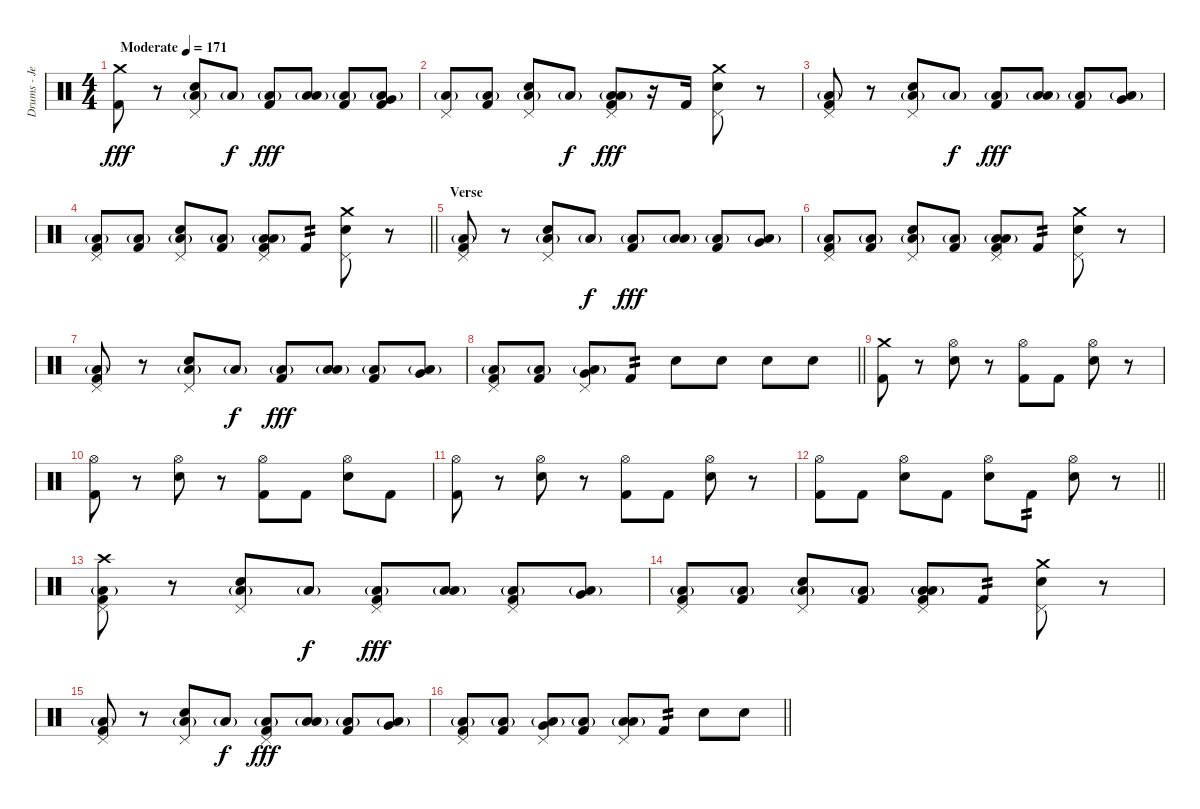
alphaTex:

\track ("Drums - Jerinx" "Drums - Je") {instrument percussion}
\staff {score}
\articulation defaults
\ts (4 4)
\tempo (171 "Moderate")
\clef neutral
\ks c
("Kick (hit) 2" "Crash medium (hit)").8{dy fff} r.8 ("Pedal Hi-Hat (hit)" "Snare (hit) 2" "Low Floor Tom (hit)"{g}).8 "Low Floor Tom (hit)"{g}.8{dy f} ("Kick (hit) 2" "Low Floor Tom (hit)"{g}).8{dy fff} ("Low Tom (hit)" "Low Floor Tom (hit)"{g}).8 ("Kick (hit) 2" "Low Floor Tom (hit)"{g}).8 ("Very Low Tom (hit)" "Kick (hit) 2" "Low Floor Tom (hit)"{g}).8 |
("Pedal Hi-Hat (hit)" "Low Floor Tom (hit)"{g}).8 ("Kick (hit) 2" "Low Floor Tom (hit)"{g}).8 ("Pedal Hi-Hat (hit)" "Snare (hit) 2" "Low Floor Tom (hit)"{g}).8 "Low Floor Tom (hit)"{g}.8{dy f} ("Pedal Hi-Hat (hit)" "Low Tom (hit)" "Kick (hit) 2" "Low Floor Tom (hit)"{g}).8{dy fff} r.16 "Kick (hit) 2".16 ("Pedal Hi-Hat (hit)" "Snare (hit) 2" "Crash medium (hit)").8 r.8 |
("Pedal Hi-Hat (hit)" "Kick (hit) 2" "Low Floor Tom (hit)"{g}).8 r.8 ("Pedal Hi-Hat (hit)" "Snare (hit) 2" "Low Floor Tom (hit)"{g}).8 "Low Floor Tom (hit)"{g}.8{dy f} ("Kick (hit) 2" "Low Floor Tom (hit)"{g}).8{dy fff} ("Low Tom (hit)" "Low Floor Tom (hit)"{g}).8 ("Kick (hit) 2" "Low Floor Tom (hit)"{g}).8 ("Very Low Tom (hit)" "Low Floor Tom (hit)"{g}).8 |
\barLineRight lightlight
("Pedal Hi-Hat (hit)" "Kick (hit) 2" "Low Floor Tom (hit)"{g}).8 ("Kick (hit) 2" "Low Floor Tom (hit)"{g}).8 ("Pedal Hi-Hat (hit)" "Snare (hit) 2" "Low Floor Tom (hit)"{g}).8 ("Kick (hit) 2" "Low Floor Tom (hit)"{g}).8 ("Pedal Hi-Hat (hit)" "Low Tom (hit)" "Kick (hit) 2" "Low Floor Tom (hit)"{g}).8 "Kick (hit) 2".8{tp 2} ("Pedal Hi-Hat (hit)" "Snare (hit) 2" "Crash medium (hit)").8 r.8 |
\section ("" "Verse")
("Pedal Hi-Hat (hit)" "Kick (hit) 2" "Low Floor Tom (hit)"{g}).8 r.8 ("Pedal Hi-Hat (hit)" "Snare (hit) 2" "Low Floor Tom (hit)"{g}).8 "Low Floor Tom (hit)"{g}.8{dy f} ("Kick (hit) 2" "Low Floor Tom (hit)"{g}).8{dy fff} ("Low Tom (hit)" "Low Floor Tom (hit)"{g}).8 ("Kick (hit) 2" "Low Floor Tom (hit)"{g}).8 ("Very Low Tom (hit)" "Low Floor Tom (hit)"{g}).8 |
("Pedal Hi-Hat (hit)" "Kick (hit) 2" "Low Floor Tom (hit)"{g}).8 ("Kick (hit) 2" "Low Floor Tom (hit)"{g}).8 ("Pedal Hi-Hat (hit)" "Snare (hit) 2" "Low Floor Tom (hit)"{g}).8 ("Kick (hit) 2" "Low Floor Tom (hit)"{g}).8 ("Pedal Hi-Hat (hit)" "Low Tom (hit)" "Kick (hit) 2" "Low Floor Tom (hit)"{g}).8 "Kick (hit) 2".8{tp 2} ("Pedal Hi-Hat (hit)" "Snare (hit) 2" "Crash medium (hit)").8 r.8 |
("Pedal Hi-Hat (hit)" "Kick (hit) 2" "Low Floor Tom (hit)"{g}).8 r.8 ("Pedal Hi-Hat (hit)" "Snare (hit) 2" "Low Floor Tom (hit)"{g}).8 "Low Floor Tom (hit)"{g}.8{dy f} ("Kick (hit) 2" "Low Floor Tom (hit)"{g}).8{dy fff} ("Low Tom (hit)" "Low Floor Tom (hit)"{g}).8 ("Kick (hit) 2" "Low Floor Tom (hit)"{g}).8 ("Very Low Tom (hit)" "Low Floor Tom (hit)"{g}).8 |
\barLineRight lightlight
("Pedal Hi-Hat (hit)" "Kick (hit) 2" "Low Floor Tom (hit)"{g}).8 ("Kick (hit) 2" "Low Floor Tom (hit)"{g}).8 ("Pedal Hi-Hat (hit)" "Very Low Tom (hit)" "Low Floor Tom (hit)"{g}).8 "Kick (hit) 2".8{tp 2} "Snare (hit) 2".8 "Snare (hit) 2".8 "Snare (hit) 2".8 "Snare (hit) 2".8 |
("Kick (hit) 2" "Crash medium (hit)").8 r.8 ("Hi-Hat (open)" "Snare (hit) 2").8 r.8 ("Hi-Hat (open)" "Kick (hit) 2").8 "Kick (hit) 2".8 ("Hi-Hat (open)" "Snare (hit) 2").8 r.8 |
("Hi-Hat (open)" "Kick (hit) 2").8 r.8 ("Hi-Hat (open)" "Snare (hit) 2").8 r.8 ("Hi-Hat (open)" "Kick (hit) 2").8 "Kick (hit) 2".8 ("Hi-Hat (open)" "Snare (hit) 2").8 "Kick (hit) 2".8 |
("Hi-Hat (open)" "Kick (hit) 2").8 r.8 ("Hi-Hat (open)" "Snare (hit) 2").8 r.8 ("Hi-Hat (open)" "Kick (hit) 2").8 "Kick (hit) 2".8 ("Hi-Hat (open)" "Snare (hit) 2").8 r.8 |
\barLineRight lightlight
("Hi-Hat (open)" "Kick (hit) 2").8 "Kick (hit) 2".8 ("Hi-Hat (open)" "Snare (hit) 2").8 "Kick (hit) 2".8 ("Hi-Hat (open)" "Snare (hit) 2").8 "Kick (hit) 2".8{tp 2} ("Hi-Hat (open)" "Snare (hit) 2").8 r.8 |
("Pedal Hi-Hat (hit)" "Kick (hit) 2" "Low Floor Tom (hit)"{g} "Crash high (hit)").8 r.8 ("Pedal Hi-Hat (hit)" "Snare (hit) 2" "Low Floor Tom (hit)"{g}).8 "Low Floor Tom (hit)"{g}.8{dy f} ("Pedal Hi-Hat (hit)" "Kick (hit) 2" "Low Floor Tom (hit)"{g}).8{dy fff} ("Low Tom (hit)" "Low Floor Tom (hit)"{g}).8 ("Pedal Hi-Hat (hit)" "Kick (hit) 2" "Low Floor Tom (hit)"{g}).8 ("Very Low Tom (hit)" "Low Floor Tom (hit)"{g}).8 |
("Pedal Hi-Hat (hit)" "Kick (hit) 2" "Low Floor Tom (hit)"{g}).8 ("Kick (hit) 2" "Low Floor Tom (hit)"{g}).8 ("Pedal Hi-Hat (hit)" "Snare (hit) 2" "Low Floor Tom (hit)"{g}).8 ("Kick (hit) 2" "Low Floor Tom (hit)"{g}).8 ("Pedal Hi-Hat (hit)" "Low Tom (hit)" "Kick (hit) 2" "Low Floor Tom (hit)"{g}).8 "Kick (hit) 2".8{tp 2} ("Pedal Hi-Hat (hit)" "Snare (hit) 2" "Crash medium (hit)").8 r.8 |
("Pedal Hi-Hat (hit)" "Kick (hit) 2" "Low Floor Tom (hit)"{g}).8 r.8 ("Pedal Hi-Hat (hit)" "Snare (hit) 2" "Low Floor Tom (hit)"{g}).8 "Low Floor Tom (hit)"{g}.8{dy f} ("Pedal Hi-Hat (hit)" "Kick (hit) 2" "Low Floor Tom (hit)"{g}).8{dy fff} ("Low Tom (hit)" "Low Floor Tom (hit)"{g}).8 ("Kick (hit) 2" "Low Floor Tom (hit)"{g}).8 ("Very Low Tom (hit)" "Low Floor Tom (hit)"{g}).8 |
\barLineRight lightlight
("Pedal Hi-Hat (hit)" "Kick (hit) 2" "Low Floor Tom (hit)"{g}).8 ("Kick (hit) 2" "Low Floor Tom (hit)"{g}).8 ("Pedal Hi-Hat (hit)" "Very Low Tom (hit)" "Low Floor Tom (hit)"{g}).8 ("Kick (hit) 2" "Low Floor Tom (hit)"{g}).8 ("Pedal Hi-Hat (hit)" "Low Tom (hit)" "Low Floor Tom (hit)"{g}).8 "Kick (hit) 2".8{tp 2} "Snare (hit) 2".8 "Snare (hit) 2".8
